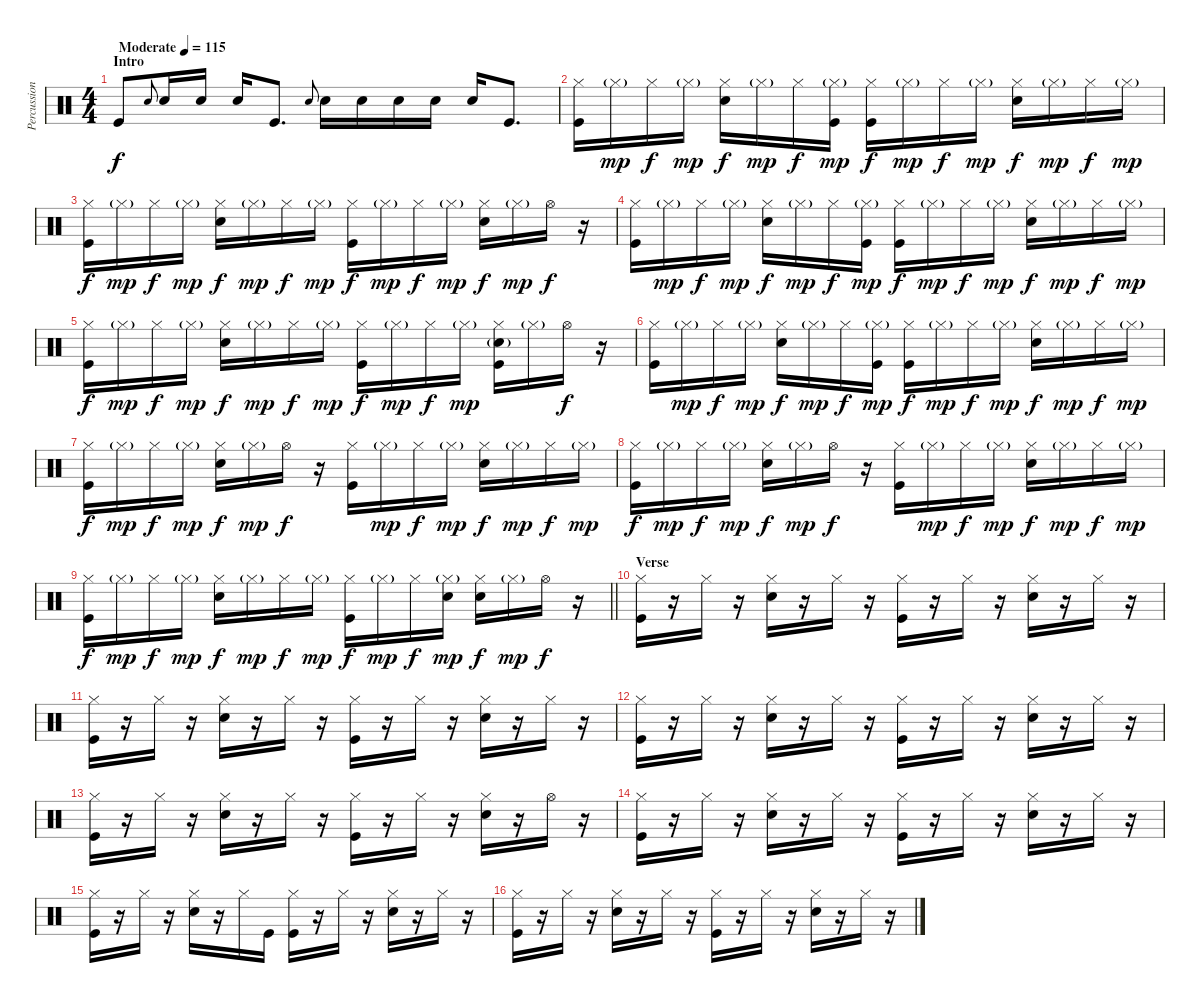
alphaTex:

\track ("Percussion" "Percussion") {instrument percussion bank 177}
\staff {score}
\articulation defaults
\ts (4 4)
\section ("" "Intro")
\tempo (115 "Moderate")
\clef neutral
\ks c "Kick (hit)".8{dy f} "Snare (hit) 2"{h}.8{gr onbeat} "Snare (hit) 2".16 "Snare (hit) 2".16 "Snare (hit) 2".16 "Kick (hit)".8{d} "Snare (hit) 2"{h}.8{gr onbeat} "Snare (hit) 2".16 "Snare (hit) 2".16 "Snare (hit) 2".16 "Snare (hit) 2".16 "Snare (hit) 2".16 "Kick (hit)".8{d}
|
("Hi-Hat (closed)" "Kick (hit)").16 "Hi-Hat (closed)"{g}.16{dy mp} "Hi-Hat (closed)".16{dy f} "Hi-Hat (closed)"{g}.16{dy mp} ("Hi-Hat (closed)" "Snare (hit) 2").16{dy f} "Hi-Hat (closed)"{g}.16{dy mp} "Hi-Hat (closed)".16{dy f} ("Hi-Hat (closed)"{g} "Kick (hit)").16{dy mp} ("Hi-Hat (closed)" "Kick (hit)").16{dy f} "Hi-Hat (closed)"{g}.16{dy mp} "Hi-Hat (closed)".16{dy f} "Hi-Hat (closed)"{g}.16{dy mp} ("Hi-Hat (closed)" "Snare (hit) 2").16{dy f} "Hi-Hat (closed)"{g}.16{dy mp} "Hi-Hat (closed)".16{dy f} "Hi-Hat (closed)"{g}.16{dy mp} |
("Hi-Hat (closed)" "Kick (hit)").16{dy f} "Hi-Hat (closed)"{g}.16{dy mp} "Hi-Hat (closed)".16{dy f} "Hi-Hat (closed)"{g}.16{dy mp} ("Hi-Hat (closed)" "Snare (hit) 2").16{dy f} "Hi-Hat (closed)"{g}.16{dy mp} "Hi-Hat (closed)".16{dy f} "Hi-Hat (closed)"{g}.16{dy mp} ("Hi-Hat (closed)" "Kick (hit)").16{dy f} "Hi-Hat (closed)"{g}.16{dy mp} "Hi-Hat (closed)".16{dy f} "Hi-Hat (closed)"{g}.16{dy mp} ("Hi-Hat (closed)" "Snare (hit) 2").16{dy f} "Hi-Hat (closed)"{g}.16{dy mp} "Hi-Hat (open)".16{dy f} r.16 |
("Hi-Hat (closed)" "Kick (hit)").16 "Hi-Hat (closed)"{g}.16{dy mp} "Hi-Hat (closed)".16{dy f} "Hi-Hat (closed)"{g}.16{dy mp} ("Hi-Hat (closed)" "Snare (hit) 2").16{dy f} "Hi-Hat (closed)"{g}.16{dy mp} "Hi-Hat (closed)".16{dy f} ("Hi-Hat (closed)"{g} "Kick (hit)").16{dy mp} ("Hi-Hat (closed)" "Kick (hit)").16{dy f} "Hi-Hat (closed)"{g}.16{dy mp} "Hi-Hat (closed)".16{dy f} "Hi-Hat (closed)"{g}.16{dy mp} ("Hi-Hat (closed)" "Snare (hit) 2").16{dy f} "Hi-Hat (closed)"{g}.16{dy mp} "Hi-Hat (closed)".16{dy f} "Hi-Hat (closed)"{g}.16{dy mp} |
("Hi-Hat (closed)" "Kick (hit)").16{dy f} "Hi-Hat (closed)"{g}.16{dy mp} "Hi-Hat (closed)".16{dy f} "Hi-Hat (closed)"{g}.16{dy mp} ("Hi-Hat (closed)" "Snare (hit) 2").16{dy f} "Hi-Hat (closed)"{g}.16{dy mp} "Hi-Hat (closed)".16{dy f} "Hi-Hat (closed)"{g}.16{dy mp} ("Hi-Hat (closed)" "Kick (hit)").16{dy f} "Hi-Hat (closed)"{g}.16{dy mp} "Hi-Hat (closed)".16{dy f} "Hi-Hat (closed)"{g}.16{dy mp} ("Hi-Hat (closed)" "Snare (hit) 2"{g} "Kick (hit)").16 "Hi-Hat (closed)"{g}.16 "Hi-Hat (open)".16{dy f} r.16 |
("Hi-Hat (closed)" "Kick (hit)").16 "Hi-Hat (closed)"{g}.16{dy mp} "Hi-Hat (closed)".16{dy f} "Hi-Hat (closed)"{g}.16{dy mp} ("Hi-Hat (closed)" "Snare (hit) 2").16{dy f} "Hi-Hat (closed)"{g}.16{dy mp} "Hi-Hat (closed)".16{dy f} ("Hi-Hat (closed)"{g} "Kick (hit)").16{dy mp} ("Hi-Hat (closed)" "Kick (hit)").16{dy f} "Hi-Hat (closed)"{g}.16{dy mp} "Hi-Hat (closed)".16{dy f} "Hi-Hat (closed)"{g}.16{dy mp} ("Hi-Hat (closed)" "Snare (hit) 2").16{dy f} "Hi-Hat (closed)"{g}.16{dy mp} "Hi-Hat (closed)".16{dy f} "Hi-Hat (closed)"{g}.16{dy mp} |
("Hi-Hat (closed)" "Kick (hit)").16{dy f} "Hi-Hat (closed)"{g}.16{dy mp} "Hi-Hat (closed)".16{dy f} "Hi-Hat (closed)"{g}.16{dy mp} ("Hi-Hat (closed)" "Snare (hit) 2").16{dy f} "Hi-Hat (closed)"{g}.16{dy mp} "Hi-Hat (open)".16{dy f} r.16 ("Hi-Hat (closed)" "Kick (hit)").16 "Hi-Hat (closed)"{g}.16{dy mp} "Hi-Hat (closed)".16{dy f} "Hi-Hat (closed)"{g}.16{dy mp} ("Hi-Hat (closed)" "Snare (hit) 2").16{dy f} "Hi-Hat (closed)"{g}.16{dy mp} "Hi-Hat (closed)".16{dy f} "Hi-Hat (closed)"{g}.16{dy mp} |
("Hi-Hat (closed)" "Kick (hit)").16{dy f} "Hi-Hat (closed)"{g}.16{dy mp} "Hi-Hat (closed)".16{dy f} "Hi-Hat (closed)"{g}.16{dy mp} ("Hi-Hat (closed)" "Snare (hit) 2").16{dy f} "Hi-Hat (closed)"{g}.16{dy mp} "Hi-Hat (open)".16{dy f} r.16 ("Hi-Hat (closed)" "Kick (hit)").16 "Hi-Hat (closed)"{g}.16{dy mp} "Hi-Hat (closed)".16{dy f} "Hi-Hat (closed)"{g}.16{dy mp} ("Hi-Hat (closed)" "Snare (hit) 2").16{dy f} "Hi-Hat (closed)"{g}.16{dy mp} "Hi-Hat (closed)".16{dy f} "Hi-Hat (closed)"{g}.16{dy mp} |
\barLineRight lightlight
("Hi-Hat (closed)" "Kick (hit)").16{dy f} "Hi-Hat (closed)"{g}.16{dy mp} "Hi-Hat (closed)".16{dy f} "Hi-Hat (closed)"{g}.16{dy mp} ("Hi-Hat (closed)" "Snare (hit) 2").16{dy f} "Hi-Hat (closed)"{g}.16{dy mp} "Hi-Hat (closed)".16{dy f} "Hi-Hat (closed)"{g}.16{dy mp} ("Hi-Hat (closed)" "Kick (hit)").16{dy f} "Hi-Hat (closed)"{g}.16{dy mp} "Hi-Hat (closed)".16{dy f} ("Hi-Hat (closed)"{g} "Snare (hit) 2").16{dy mp} ("Hi-Hat (closed)" "Snare (hit) 2").16{dy f} "Hi-Hat (closed)"{g}.16{dy mp} "Hi-Hat (open)".16{dy f} r.16 |
\section ("" "Verse")
("Hi-Hat (closed)" "Kick (hit)").16 r.16 "Hi-Hat (closed)".16 r.16 ("Hi-Hat (closed)" "Snare (hit) 2").16 r.16 "Hi-Hat (closed)".16 r.16 ("Hi-Hat (closed)" "Kick (hit)").16 r.16 "Hi-Hat (closed)".16 r.16 ("Hi-Hat (closed)" "Snare (hit) 2").16 r.16 "Hi-Hat (closed)".16 r.16 |
("Hi-Hat (closed)" "Kick (hit)").16 r.16 "Hi-Hat (closed)".16 r.16 ("Hi-Hat (closed)" "Snare (hit) 2").16 r.16 "Hi-Hat (closed)".16 r.16 ("Hi-Hat (closed)" "Kick (hit)").16 r.16 "Hi-Hat (closed)".16 r.16 ("Hi-Hat (closed)" "Snare (hit) 2").16 r.16 "Hi-Hat (closed)".16 r.16 |
("Hi-Hat (closed)" "Kick (hit)").16 r.16 "Hi-Hat (closed)".16 r.16 ("Hi-Hat (closed)" "Snare (hit) 2").16 r.16 "Hi-Hat (closed)".16 r.16 ("Hi-Hat (closed)" "Kick (hit)").16 r.16 "Hi-Hat (closed)".16 r.16 ("Hi-Hat (closed)" "Snare (hit) 2").16 r.16 "Hi-Hat (closed)".16 r.16 |
("Hi-Hat (closed)" "Kick (hit)").16 r.16 "Hi-Hat (closed)".16 r.16 ("Hi-Hat (closed)" "Snare (hit) 2").16 r.16 "Hi-Hat (closed)".16 r.16 ("Hi-Hat (closed)" "Kick (hit)").16 r.16 "Hi-Hat (closed)".16 r.16 ("Hi-Hat (closed)" "Snare (hit) 2").16 r.16 "Hi-Hat (open)".16 r.16 |
("Hi-Hat (closed)" "Kick (hit)").16 r.16 "Hi-Hat (closed)".16 r.16 ("Hi-Hat (closed)" "Snare (hit) 2").16 r.16 "Hi-Hat (closed)".16 r.16 ("Hi-Hat (closed)" "Kick (hit)").16 r.16 "Hi-Hat (closed)".16 r.16 ("Hi-Hat (closed)" "Snare (hit) 2").16 r.16 "Hi-Hat (closed)".16 r.16 |
("Hi-Hat (closed)" "Kick (hit)").16 r.16 "Hi-Hat (closed)".16 r.16 ("Hi-Hat (closed)" "Snare (hit) 2").16 r.16 "Hi-Hat (closed)".16 "Kick (hit)".16 ("Hi-Hat (closed)" "Kick (hit)").16 r.16 "Hi-Hat (closed)".16 r.16 ("Hi-Hat (closed)" "Snare (hit) 2").16 r.16 "Hi-Hat (closed)".16 r.16 |
("Hi-Hat (closed)" "Kick (hit)").16 r.16 "Hi-Hat (closed)".16 r.16 ("Hi-Hat (closed)" "Snare (hit) 2").16 r.16 "Hi-Hat (closed)".16 r.16 ("Hi-Hat (closed)" "Kick (hit)").16 r.16 "Hi-Hat (closed)".16 r.16 ("Hi-Hat (closed)" "Snare (hit) 2").16 r.16 "Hi-Hat (closed)".16 r.16
